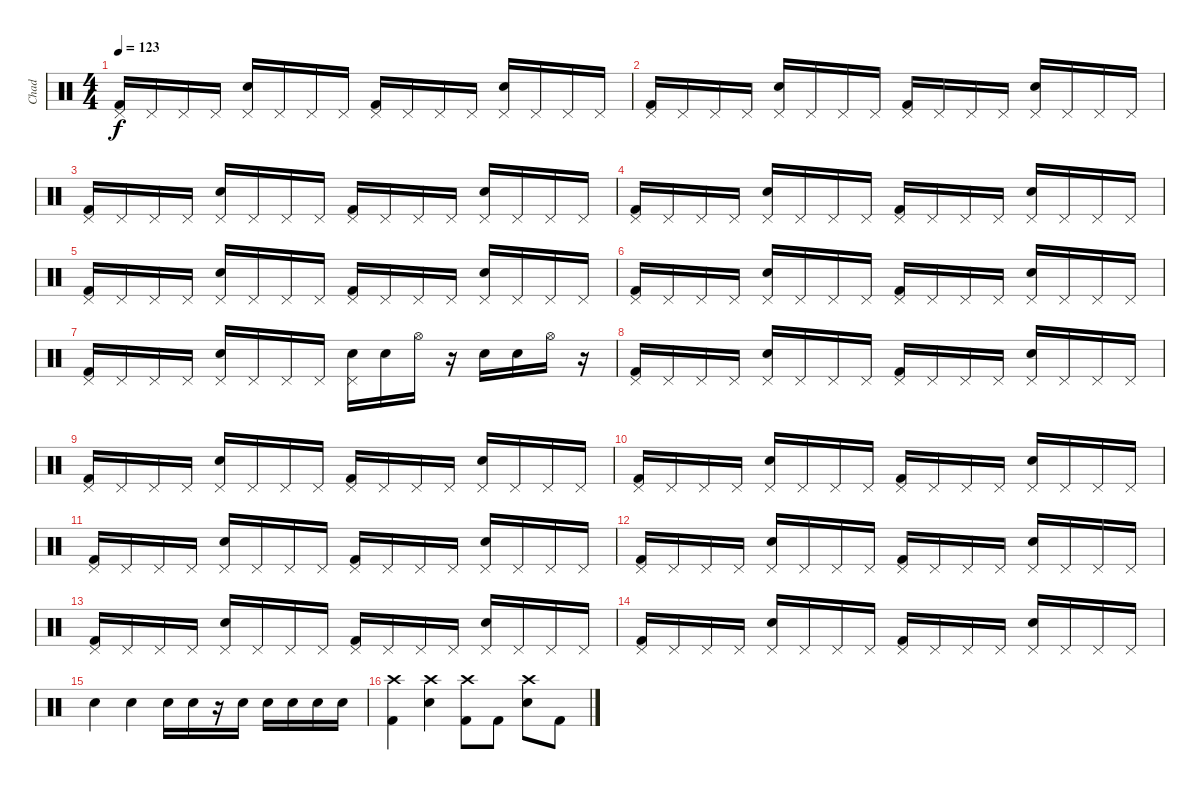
\track ("Chad" "Chad") {instrument percussion}
\staff {score}
\articulation defaults
\ts (4 4)
\tempo 123
\clef neutral
\ks c
("Pedal Hi-Hat (hit)" "Kick (hit) 2").16{dy f} "Pedal Hi-Hat (hit)".16 "Pedal Hi-Hat (hit)".16 "Pedal Hi-Hat (hit)".16 ("Pedal Hi-Hat (hit)" "Electric Snare (hit)").16 "Pedal Hi-Hat (hit)".16 "Pedal Hi-Hat (hit)".16 "Pedal Hi-Hat (hit)".16 ("Pedal Hi-Hat (hit)" "Kick (hit) 2").16 "Pedal Hi-Hat (hit)".16 "Pedal Hi-Hat (hit)".16 "Pedal Hi-Hat (hit)".16 ("Pedal Hi-Hat (hit)" "Electric Snare (hit)").16 "Pedal Hi-Hat (hit)".16 "Pedal Hi-Hat (hit)".16 "Pedal Hi-Hat (hit)".16 |
("Pedal Hi-Hat (hit)" "Kick (hit) 2").16 "Pedal Hi-Hat (hit)".16 "Pedal Hi-Hat (hit)".16 "Pedal Hi-Hat (hit)".16 ("Pedal Hi-Hat (hit)" "Electric Snare (hit)").16 "Pedal Hi-Hat (hit)".16 "Pedal Hi-Hat (hit)".16 "Pedal Hi-Hat (hit)".16 ("Pedal Hi-Hat (hit)" "Kick (hit) 2").16 "Pedal Hi-Hat (hit)".16 "Pedal Hi-Hat (hit)".16 "Pedal Hi-Hat (hit)".16 ("Pedal Hi-Hat (hit)" "Electric Snare (hit)").16 "Pedal Hi-Hat (hit)".16 "Pedal Hi-Hat (hit)".16 "Pedal Hi-Hat (hit)".16 |
("Pedal Hi-Hat (hit)" "Kick (hit) 2").16 "Pedal Hi-Hat (hit)".16 "Pedal Hi-Hat (hit)".16 "Pedal Hi-Hat (hit)".16 ("Pedal Hi-Hat (hit)" "Electric Snare (hit)").16 "Pedal Hi-Hat (hit)".16 "Pedal Hi-Hat (hit)".16 "Pedal Hi-Hat (hit)".16 ("Pedal Hi-Hat (hit)" "Kick (hit) 2").16 "Pedal Hi-Hat (hit)".16 "Pedal Hi-Hat (hit)".16 "Pedal Hi-Hat (hit)".16 ("Pedal Hi-Hat (hit)" "Electric Snare (hit)").16 "Pedal Hi-Hat (hit)".16 "Pedal Hi-Hat (hit)".16 "Pedal Hi-Hat (hit)".16 |
("Pedal Hi-Hat (hit)" "Kick (hit) 2").16 "Pedal Hi-Hat (hit)".16 "Pedal Hi-Hat (hit)".16 "Pedal Hi-Hat (hit)".16 ("Pedal Hi-Hat (hit)" "Electric Snare (hit)").16 "Pedal Hi-Hat (hit)".16 "Pedal Hi-Hat (hit)".16 "Pedal Hi-Hat (hit)".16 ("Pedal Hi-Hat (hit)" "Kick (hit) 2").16 "Pedal Hi-Hat (hit)".16 "Pedal Hi-Hat (hit)".16 "Pedal Hi-Hat (hit)".16 ("Pedal Hi-Hat (hit)" "Electric Snare (hit)").16 "Pedal Hi-Hat (hit)".16 "Pedal Hi-Hat (hit)".16 "Pedal Hi-Hat (hit)".16 |
("Pedal Hi-Hat (hit)" "Kick (hit) 2").16 "Pedal Hi-Hat (hit)".16 "Pedal Hi-Hat (hit)".16 "Pedal Hi-Hat (hit)".16 ("Pedal Hi-Hat (hit)" "Electric Snare (hit)").16 "Pedal Hi-Hat (hit)".16 "Pedal Hi-Hat (hit)".16 "Pedal Hi-Hat (hit)".16 ("Pedal Hi-Hat (hit)" "Kick (hit) 2").16 "Pedal Hi-Hat (hit)".16 "Pedal Hi-Hat (hit)".16 "Pedal Hi-Hat (hit)".16 ("Pedal Hi-Hat (hit)" "Electric Snare (hit)").16 "Pedal Hi-Hat (hit)".16 "Pedal Hi-Hat (hit)".16 "Pedal Hi-Hat (hit)".16 |
("Pedal Hi-Hat (hit)" "Kick (hit) 2").16 "Pedal Hi-Hat (hit)".16 "Pedal Hi-Hat (hit)".16 "Pedal Hi-Hat (hit)".16 ("Pedal Hi-Hat (hit)" "Electric Snare (hit)").16 "Pedal Hi-Hat (hit)".16 "Pedal Hi-Hat (hit)".16 "Pedal Hi-Hat (hit)".16 ("Pedal Hi-Hat (hit)" "Kick (hit) 2").16 "Pedal Hi-Hat (hit)".16 "Pedal Hi-Hat (hit)".16 "Pedal Hi-Hat (hit)".16 ("Pedal Hi-Hat (hit)" "Electric Snare (hit)").16 "Pedal Hi-Hat (hit)".16 "Pedal Hi-Hat (hit)".16 "Pedal Hi-Hat (hit)".16 |
("Pedal Hi-Hat (hit)" "Kick (hit) 2").16 "Pedal Hi-Hat (hit)".16 "Pedal Hi-Hat (hit)".16 "Pedal Hi-Hat (hit)".16 ("Pedal Hi-Hat (hit)" "Electric Snare (hit)").16 "Pedal Hi-Hat (hit)".16 "Pedal Hi-Hat (hit)".16 "Pedal Hi-Hat (hit)".16 ("Pedal Hi-Hat (hit)" "Electric Snare (hit)").16 "Electric Snare (hit)".16 "Hi-Hat (open)".16 r.16 "Electric Snare (hit)".16 "Electric Snare (hit)".16 "Hi-Hat (open)".16 r.16 |
("Pedal Hi-Hat (hit)" "Kick (hit) 2").16 "Pedal Hi-Hat (hit)".16 "Pedal Hi-Hat (hit)".16 "Pedal Hi-Hat (hit)".16 ("Pedal Hi-Hat (hit)" "Electric Snare (hit)").16 "Pedal Hi-Hat (hit)".16 "Pedal Hi-Hat (hit)".16 "Pedal Hi-Hat (hit)".16 ("Pedal Hi-Hat (hit)" "Kick (hit) 2").16 "Pedal Hi-Hat (hit)".16 "Pedal Hi-Hat (hit)".16 "Pedal Hi-Hat (hit)".16 ("Pedal Hi-Hat (hit)" "Electric Snare (hit)").16 "Pedal Hi-Hat (hit)".16 "Pedal Hi-Hat (hit)".16 "Pedal Hi-Hat (hit)".16 |
("Pedal Hi-Hat (hit)" "Kick (hit) 2").16 "Pedal Hi-Hat (hit)".16 "Pedal Hi-Hat (hit)".16 "Pedal Hi-Hat (hit)".16 ("Pedal Hi-Hat (hit)" "Electric Snare (hit)").16 "Pedal Hi-Hat (hit)".16 "Pedal Hi-Hat (hit)".16 "Pedal Hi-Hat (hit)".16 ("Pedal Hi-Hat (hit)" "Kick (hit) 2").16 "Pedal Hi-Hat (hit)".16 "Pedal Hi-Hat (hit)".16 "Pedal Hi-Hat (hit)".16 ("Pedal Hi-Hat (hit)" "Electric Snare (hit)").16 "Pedal Hi-Hat (hit)".16 "Pedal Hi-Hat (hit)".16 "Pedal Hi-Hat (hit)".16 |
("Pedal Hi-Hat (hit)" "Kick (hit) 2").16 "Pedal Hi-Hat (hit)".16 "Pedal Hi-Hat (hit)".16 "Pedal Hi-Hat (hit)".16 ("Pedal Hi-Hat (hit)" "Electric Snare (hit)").16 "Pedal Hi-Hat (hit)".16 "Pedal Hi-Hat (hit)".16 "Pedal Hi-Hat (hit)".16 ("Pedal Hi-Hat (hit)" "Kick (hit) 2").16 "Pedal Hi-Hat (hit)".16 "Pedal Hi-Hat (hit)".16 "Pedal Hi-Hat (hit)".16 ("Pedal Hi-Hat (hit)" "Electric Snare (hit)").16 "Pedal Hi-Hat (hit)".16 "Pedal Hi-Hat (hit)".16 "Pedal Hi-Hat (hit)".16 |
("Pedal Hi-Hat (hit)" "Kick (hit) 2").16 "Pedal Hi-Hat (hit)".16 "Pedal Hi-Hat (hit)".16 "Pedal Hi-Hat (hit)".16 ("Pedal Hi-Hat (hit)" "Electric Snare (hit)").16 "Pedal Hi-Hat (hit)".16 "Pedal Hi-Hat (hit)".16 "Pedal Hi-Hat (hit)".16 ("Pedal Hi-Hat (hit)" "Kick (hit) 2").16 "Pedal Hi-Hat (hit)".16 "Pedal Hi-Hat (hit)".16 "Pedal Hi-Hat (hit)".16 ("Pedal Hi-Hat (hit)" "Electric Snare (hit)").16 "Pedal Hi-Hat (hit)".16 "Pedal Hi-Hat (hit)".16 "Pedal Hi-Hat (hit)".16 |
("Pedal Hi-Hat (hit)" "Kick (hit) 2").16 "Pedal Hi-Hat (hit)".16 "Pedal Hi-Hat (hit)".16 "Pedal Hi-Hat (hit)".16 ("Pedal Hi-Hat (hit)" "Electric Snare (hit)").16 "Pedal Hi-Hat (hit)".16 "Pedal Hi-Hat (hit)".16 "Pedal Hi-Hat (hit)".16 ("Pedal Hi-Hat (hit)" "Kick (hit) 2").16 "Pedal Hi-Hat (hit)".16 "Pedal Hi-Hat (hit)".16 "Pedal Hi-Hat (hit)".16 ("Pedal Hi-Hat (hit)" "Electric Snare (hit)").16 "Pedal Hi-Hat (hit)".16 "Pedal Hi-Hat (hit)".16 "Pedal Hi-Hat (hit)".16 |
("Pedal Hi-Hat (hit)" "Kick (hit) 2").16 "Pedal Hi-Hat (hit)".16 "Pedal Hi-Hat (hit)".16 "Pedal Hi-Hat (hit)".16 ("Pedal Hi-Hat (hit)" "Electric Snare (hit)").16 "Pedal Hi-Hat (hit)".16 "Pedal Hi-Hat (hit)".16 "Pedal Hi-Hat (hit)".16 ("Pedal Hi-Hat (hit)" "Kick (hit) 2").16 "Pedal Hi-Hat (hit)".16 "Pedal Hi-Hat (hit)".16 "Pedal Hi-Hat (hit)".16 ("Pedal Hi-Hat (hit)" "Electric Snare (hit)").16 "Pedal Hi-Hat (hit)".16 "Pedal Hi-Hat (hit)".16 "Pedal Hi-Hat (hit)".16 |
("Pedal Hi-Hat (hit)" "Kick (hit) 2").16 "Pedal Hi-Hat (hit)".16 "Pedal Hi-Hat (hit)".16 "Pedal Hi-Hat (hit)".16 ("Pedal Hi-Hat (hit)" "Electric Snare (hit)").16 "Pedal Hi-Hat (hit)".16 "Pedal Hi-Hat (hit)".16 "Pedal Hi-Hat (hit)".16 ("Pedal Hi-Hat (hit)" "Kick (hit) 2").16 "Pedal Hi-Hat (hit)".16 "Pedal Hi-Hat (hit)".16 "Pedal Hi-Hat (hit)".16 ("Pedal Hi-Hat (hit)" "Electric Snare (hit)").16 "Pedal Hi-Hat (hit)".16 "Pedal Hi-Hat (hit)".16 "Pedal Hi-Hat (hit)".16 |
"Electric Snare (hit)".4 "Electric Snare (hit)".4 "Electric Snare (hit)".16 "Electric Snare (hit)".16 r.16 "Electric Snare (hit)".16 "Electric Snare (hit)".16 "Electric Snare (hit)".16 "Electric Snare (hit)".16 "Electric Snare (hit)".16 |
("Crash high (hit)" "Kick (hit) 2").4 ("Crash high (hit)" "Electric Snare (hit)").4 ("Crash high (hit)" "Kick (hit) 2").8 "Kick (hit) 2".8 ("Crash high (hit)" "Electric Snare (hit)").8 "Kick (hit) 2".8
